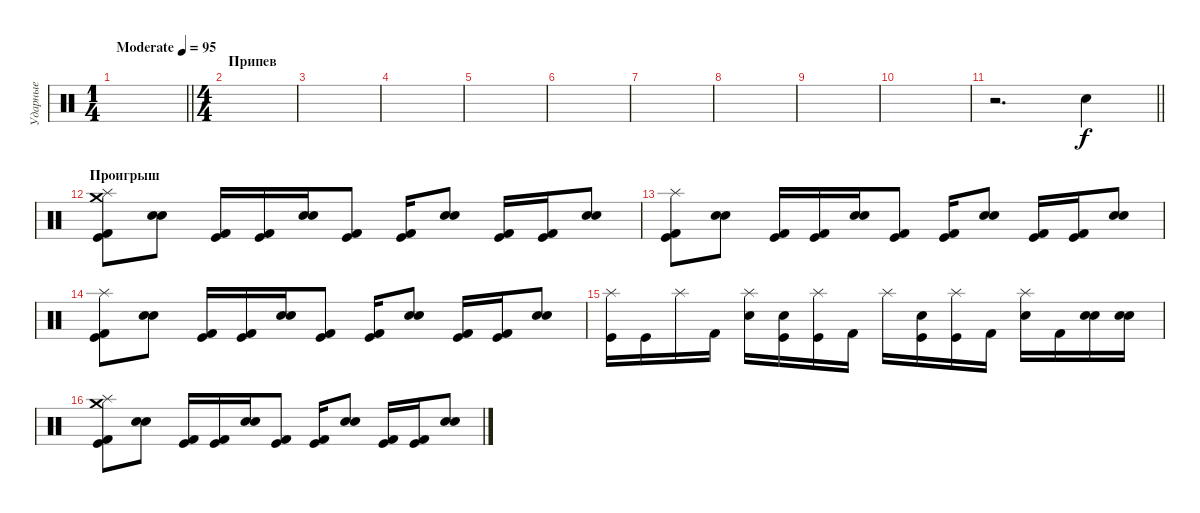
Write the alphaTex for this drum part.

\track ("Ударные" "Ударные") {instrument percussion}
\staff {score}
\articulation defaults
\ts (1 4)
\tempo (95 "Moderate")
\clef neutral
\barLineRight lightlight
\ks c
|
\ts (4 4)
\section ("" "Припев")
|
|
|
|
|
|
|
|
|
\barLineRight lightlight
r.2{d} "Electric Snare (hit)".4 |
\section ("" "Проигрыш")
("Crash medium (hit)" "Splash (hit)" "Kick (hit)" "Kick (hit) 2").8 ("Electric Snare (hit)" "Snare (hit) 2").8 ("Kick (hit)" "Kick (hit) 2").16 ("Kick (hit)" "Kick (hit) 2").16 ("Electric Snare (hit)" "Snare (hit) 2").16 ("Kick (hit)" "Kick (hit) 2").8 ("Kick (hit)" "Kick (hit) 2").16 ("Electric Snare (hit)" "Snare (hit) 2").8 ("Kick (hit)" "Kick (hit) 2").16 ("Kick (hit)" "Kick (hit) 2").16 ("Electric Snare (hit)" "Snare (hit) 2").8 |
("Splash (hit)" "Kick (hit)" "Kick (hit) 2").8 ("Electric Snare (hit)" "Snare (hit) 2").8 ("Kick (hit)" "Kick (hit) 2").16 ("Kick (hit)" "Kick (hit) 2").16 ("Electric Snare (hit)" "Snare (hit) 2").16 ("Kick (hit)" "Kick (hit) 2").8 ("Kick (hit)" "Kick (hit) 2").16 ("Electric Snare (hit)" "Snare (hit) 2").8 ("Kick (hit)" "Kick (hit) 2").16 ("Kick (hit)" "Kick (hit) 2").16 ("Electric Snare (hit)" "Snare (hit) 2").8 |
("Splash (hit)" "Kick (hit)" "Kick (hit) 2").8 ("Electric Snare (hit)" "Snare (hit) 2").8 ("Kick (hit)" "Kick (hit) 2").16 ("Kick (hit)" "Kick (hit) 2").16 ("Electric Snare (hit)" "Snare (hit) 2").16 ("Kick (hit)" "Kick (hit) 2").8 ("Kick (hit)" "Kick (hit) 2").16 ("Electric Snare (hit)" "Snare (hit) 2").8 ("Kick (hit)" "Kick (hit) 2").16 ("Kick (hit)" "Kick (hit) 2").16 ("Electric Snare (hit)" "Snare (hit) 2").8 |
("Splash (hit)" "Kick (hit)").16 "Kick (hit)".16 "Splash (hit)".16 "Kick (hit) 2".16 ("Splash (hit)" "Electric Snare (hit)").16 ("Electric Snare (hit)" "Kick (hit)").16 ("Splash (hit)" "Kick (hit)").16 "Kick (hit) 2".16 "Splash (hit)".16 ("Electric Snare (hit)" "Kick (hit)").16 ("Splash (hit)" "Kick (hit)").16 "Kick (hit) 2".16 ("Splash (hit)" "Electric Snare (hit)").16 "Kick (hit) 2".16 ("Electric Snare (hit)" "Snare (hit) 2").16 ("Electric Snare (hit)" "Snare (hit) 2").16 |
("Crash medium (hit)" "Splash (hit)" "Kick (hit)" "Kick (hit) 2").8 ("Electric Snare (hit)" "Snare (hit) 2").8 ("Kick (hit)" "Kick (hit) 2").16 ("Kick (hit)" "Kick (hit) 2").16 ("Electric Snare (hit)" "Snare (hit) 2").16 ("Kick (hit)" "Kick (hit) 2").8 ("Kick (hit)" "Kick (hit) 2").16 ("Electric Snare (hit)" "Snare (hit) 2").8 ("Kick (hit)" "Kick (hit) 2").16 ("Kick (hit)" "Kick (hit) 2").16 ("Electric Snare (hit)" "Snare (hit) 2").8
